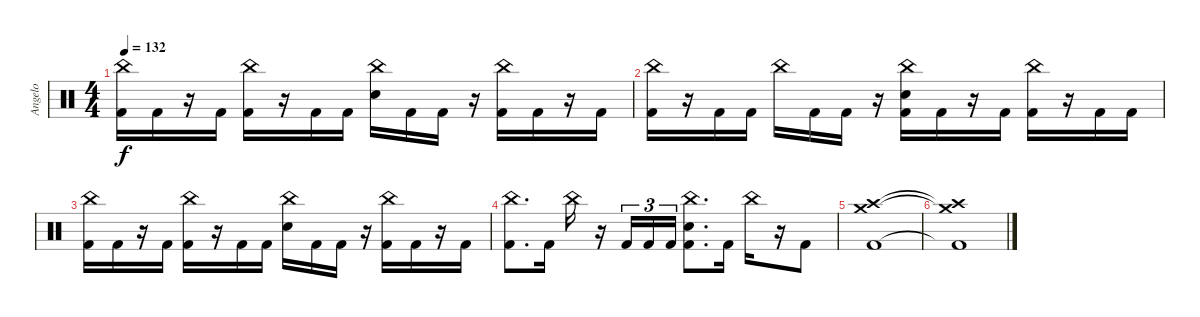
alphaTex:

\track ("Angelo" "Angelo") {instrument percussion}
\staff {score}
\articulation defaults
\ts (4 4)
\tempo 132
\clef neutral
\ks c
("China (hit)" "Kick (hit) 2").16{dy f} "Kick (hit) 2".16 r.16 "Kick (hit) 2".16 ("China (hit)" "Kick (hit) 2").16 r.16 "Kick (hit) 2".16 "Kick (hit) 2".16 ("China (hit)" "Electric Snare (hit)").16 "Kick (hit) 2".16 "Kick (hit) 2".16 r.16 ("China (hit)" "Kick (hit) 2").16 "Kick (hit) 2".16 r.16 "Kick (hit) 2".16 |
("China (hit)" "Kick (hit) 2").16 r.16 "Kick (hit) 2".16 "Kick (hit) 2".16 "China (hit)".16 "Kick (hit) 2".16 "Kick (hit) 2".16 r.16 ("China (hit)" "Electric Snare (hit)" "Kick (hit) 2").16 "Kick (hit) 2".16 r.16 "Kick (hit) 2".16 ("China (hit)" "Kick (hit) 2").16 r.16 "Kick (hit) 2".16 "Kick (hit) 2".16 |
("China (hit)" "Kick (hit) 2").16 "Kick (hit) 2".16 r.16 "Kick (hit) 2".16 ("China (hit)" "Kick (hit) 2").16 r.16 "Kick (hit) 2".16 "Kick (hit) 2".16 ("China (hit)" "Electric Snare (hit)").16 "Kick (hit) 2".16 "Kick (hit) 2".16 r.16 ("China (hit)" "Kick (hit) 2").16 "Kick (hit) 2".16 r.16 "Kick (hit) 2".16 |
("China (hit)" "Kick (hit) 2").8{d} "Kick (hit) 2".16 "China (hit)".16 r.16 "Kick (hit) 2".16{tu (3 2)} "Kick (hit) 2".16{tu (3 2)} "Kick (hit) 2".16{tu (3 2)} ("China (hit)" "Electric Snare (hit)" "Kick (hit) 2").8{d} "Kick (hit) 2".16 "China (hit)".16 r.16 "Kick (hit) 2".8 |
("Crash medium (hit)" "Crash high (hit)" "Kick (hit) 2").1 |
("Crash medium (hit)"{t} "Crash high (hit)"{t} "Kick (hit) 2"{t}).1
